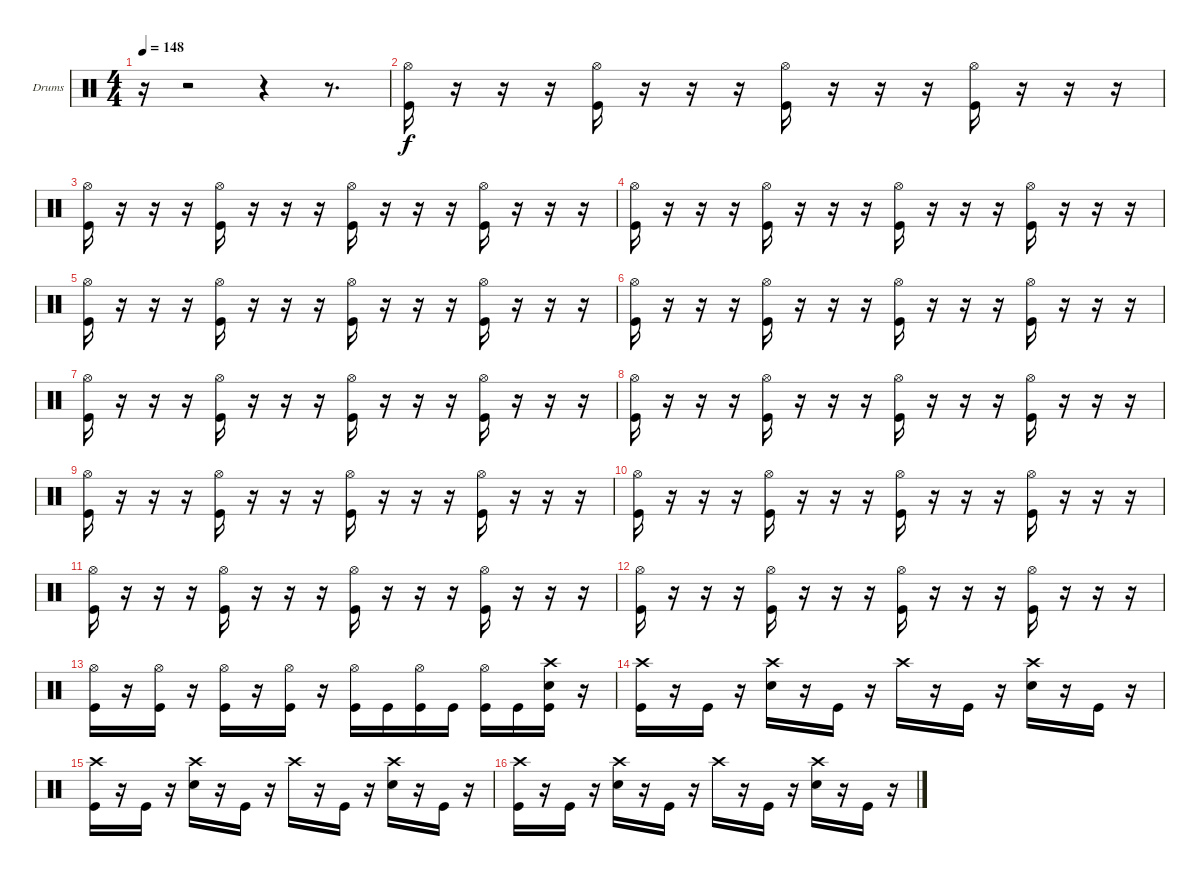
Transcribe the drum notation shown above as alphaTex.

\bracketExtendMode groupsimilarinstruments
\firstSystemTrackNameOrientation horizontal
\otherSystemsTrackNameOrientation horizontal
\track ("Drumkit" "Drums") {instrument percussion}
\staff {score}
\articulation defaults
\ts (4 4)
\tempo 148
\clef neutral
\ks c
r.16{dy f} r.2 r.4 r.8{d} |
("Hi-Hat (open)" "Kick (hit)").16 r.16 r.16 r.16 ("Hi-Hat (open)" "Kick (hit)").16 r.16 r.16 r.16 ("Kick (hit)" "Hi-Hat (open)").16 r.16 r.16 r.16 ("Kick (hit)" "Hi-Hat (open)").16 r.16 r.16 r.16 |
("Hi-Hat (open)" "Kick (hit)").16 r.16 r.16 r.16 ("Hi-Hat (open)" "Kick (hit)").16 r.16 r.16 r.16 ("Kick (hit)" "Hi-Hat (open)").16 r.16 r.16 r.16 ("Kick (hit)" "Hi-Hat (open)").16 r.16 r.16 r.16 |
("Hi-Hat (open)" "Kick (hit)").16 r.16 r.16 r.16 ("Hi-Hat (open)" "Kick (hit)").16 r.16 r.16 r.16 ("Kick (hit)" "Hi-Hat (open)").16 r.16 r.16 r.16 ("Kick (hit)" "Hi-Hat (open)").16 r.16 r.16 r.16 |
("Hi-Hat (open)" "Kick (hit)").16 r.16 r.16 r.16 ("Hi-Hat (open)" "Kick (hit)").16 r.16 r.16 r.16 ("Kick (hit)" "Hi-Hat (open)").16 r.16 r.16 r.16 ("Kick (hit)" "Hi-Hat (open)").16 r.16 r.16 r.16 |
("Hi-Hat (open)" "Kick (hit)").16 r.16 r.16 r.16 ("Hi-Hat (open)" "Kick (hit)").16 r.16 r.16 r.16 ("Kick (hit)" "Hi-Hat (open)").16 r.16 r.16 r.16 ("Kick (hit)" "Hi-Hat (open)").16 r.16 r.16 r.16 |
("Hi-Hat (open)" "Kick (hit)").16 r.16 r.16 r.16 ("Hi-Hat (open)" "Kick (hit)").16 r.16 r.16 r.16 ("Kick (hit)" "Hi-Hat (open)").16 r.16 r.16 r.16 ("Kick (hit)" "Hi-Hat (open)").16 r.16 r.16 r.16 |
("Hi-Hat (open)" "Kick (hit)").16 r.16 r.16 r.16 ("Hi-Hat (open)" "Kick (hit)").16 r.16 r.16 r.16 ("Kick (hit)" "Hi-Hat (open)").16 r.16 r.16 r.16 ("Kick (hit)" "Hi-Hat (open)").16 r.16 r.16 r.16 |
("Hi-Hat (open)" "Kick (hit)").16 r.16 r.16 r.16 ("Hi-Hat (open)" "Kick (hit)").16 r.16 r.16 r.16 ("Kick (hit)" "Hi-Hat (open)").16 r.16 r.16 r.16 ("Kick (hit)" "Hi-Hat (open)").16 r.16 r.16 r.16 |
("Hi-Hat (open)" "Kick (hit)").16 r.16 r.16 r.16 ("Hi-Hat (open)" "Kick (hit)").16 r.16 r.16 r.16 ("Kick (hit)" "Hi-Hat (open)").16 r.16 r.16 r.16 ("Kick (hit)" "Hi-Hat (open)").16 r.16 r.16 r.16 |
("Hi-Hat (open)" "Kick (hit)").16 r.16 r.16 r.16 ("Hi-Hat (open)" "Kick (hit)").16 r.16 r.16 r.16 ("Kick (hit)" "Hi-Hat (open)").16 r.16 r.16 r.16 ("Kick (hit)" "Hi-Hat (open)").16 r.16 r.16 r.16 |
("Hi-Hat (open)" "Kick (hit)").16 r.16 r.16 r.16 ("Hi-Hat (open)" "Kick (hit)").16 r.16 r.16 r.16 ("Kick (hit)" "Hi-Hat (open)").16 r.16 r.16 r.16 ("Kick (hit)" "Hi-Hat (open)").16 r.16 r.16 r.16 |
("Hi-Hat (open)" "Kick (hit)").16 r.16 ("Kick (hit)" "Hi-Hat (open)").16 r.16 ("Hi-Hat (open)" "Kick (hit)").16 r.16 ("Kick (hit)" "Hi-Hat (open)").16 r.16 ("Kick (hit)" "Hi-Hat (open)").16 "Kick (hit)".16 ("Kick (hit)" "Hi-Hat (open)").16 "Kick (hit)".16 ("Kick (hit)" "Hi-Hat (open)").16 "Kick (hit)".16 ("Kick (hit)" "Snare (hit) 2" "Crash high (hit)").16 r.16 |
("Kick (hit)" "Crash high (hit)").16 r.16 "Kick (hit)".16 r.16 ("Snare (hit) 2" "Crash high (hit)").16 r.16 "Kick (hit)".16 r.16 "Crash high (hit)".16 r.16 "Kick (hit)".16 r.16 ("Snare (hit) 2" "Crash high (hit)").16 r.16 "Kick (hit)".16 r.16 |
("Kick (hit)" "Crash high (hit)").16 r.16 "Kick (hit)".16 r.16 ("Snare (hit) 2" "Crash high (hit)").16 r.16 "Kick (hit)".16 r.16 "Crash high (hit)".16 r.16 "Kick (hit)".16 r.16 ("Snare (hit) 2" "Crash high (hit)").16 r.16 "Kick (hit)".16 r.16 |
("Kick (hit)" "Crash high (hit)").16 r.16 "Kick (hit)".16 r.16 ("Snare (hit) 2" "Crash high (hit)").16 r.16 "Kick (hit)".16 r.16 "Crash high (hit)".16 r.16 "Kick (hit)".16 r.16 ("Snare (hit) 2" "Crash high (hit)").16 r.16 "Kick (hit)".16 r.16
